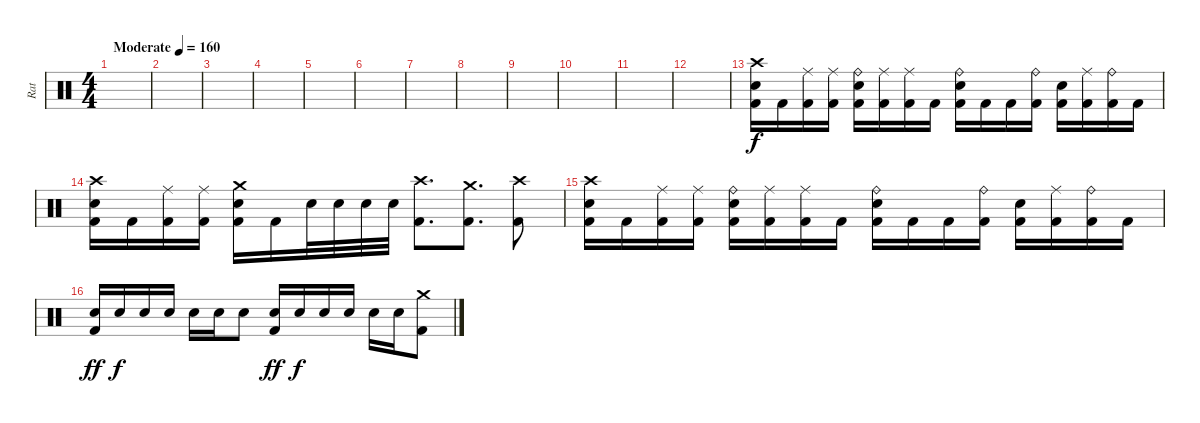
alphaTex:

\track ("Rat" "Rat") {instrument percussion}
\staff {score}
\articulation defaults
\ts (4 4)
\tempo (160 "Moderate")
\clef neutral
\ks c
|
|
|
|
|
|
|
|
|
|
|
|
("Crash high (hit)" "Electric Snare (hit)" "Kick (hit) 2").16 "Kick (hit) 2".16 ("Ride (middle)" "Kick (hit) 2").16 ("Ride (middle)" "Kick (hit) 2").16 ("Ride (bell)" "Electric Snare (hit)" "Kick (hit) 2").16 ("Ride (middle)" "Kick (hit) 2").16 ("Ride (middle)" "Kick (hit) 2").16 "Kick (hit) 2".16 ("Ride (bell)" "Electric Snare (hit)" "Kick (hit) 2").16 "Kick (hit) 2".16 "Kick (hit) 2".16 ("Ride (bell)" "Kick (hit) 2").16 ("Electric Snare (hit)" "Kick (hit) 2").16 ("Ride (middle)" "Kick (hit) 2").16 ("Ride (bell)" "Kick (hit) 2").16 "Kick (hit) 2".16 |
("Crash high (hit)" "Electric Snare (hit)" "Kick (hit) 2").16 "Kick (hit) 2".16 ("Ride (middle)" "Kick (hit) 2").16 ("Ride (middle)" "Kick (hit) 2").16 ("Crash medium (hit)" "Electric Snare (hit)" "Kick (hit) 2").16 "Kick (hit) 2".16 "Electric Snare (hit)".32 "Electric Snare (hit)".32 "Electric Snare (hit)".32 "Electric Snare (hit)".32 ("Crash high (hit)" "Kick (hit) 2").8{d} ("Crash medium (hit)" "Kick (hit) 2").8{d} ("Crash high (hit)" "Kick (hit) 2").8 |
("Crash high (hit)" "Electric Snare (hit)" "Kick (hit) 2").16 "Kick (hit) 2".16 ("Ride (middle)" "Kick (hit) 2").16 ("Ride (middle)" "Kick (hit) 2").16 ("Ride (bell)" "Electric Snare (hit)" "Kick (hit) 2").16 ("Ride (middle)" "Kick (hit) 2").16 ("Ride (middle)" "Kick (hit) 2").16 "Kick (hit) 2".16 ("Ride (bell)" "Electric Snare (hit)" "Kick (hit) 2").16 "Kick (hit) 2".16 "Kick (hit) 2".16 ("Ride (bell)" "Kick (hit) 2").16 ("Electric Snare (hit)" "Kick (hit) 2").16 ("Ride (middle)" "Kick (hit) 2").16 ("Ride (bell)" "Kick (hit) 2").16 "Kick (hit) 2".16 |
("Electric Snare (hit)" "Kick (hit) 2").16{dy ff} "Electric Snare (hit)".16{dy f} "Electric Snare (hit)".16 "Electric Snare (hit)".16 "Electric Snare (hit)".16 "Electric Snare (hit)".16 "Electric Snare (hit)".8 ("Electric Snare (hit)" "Kick (hit) 2").16{dy ff} "Electric Snare (hit)".16{dy f} "Electric Snare (hit)".16 "Electric Snare (hit)".16 "Electric Snare (hit)".16 "Electric Snare (hit)".16 ("Crash medium (hit)" "Kick (hit) 2").8
